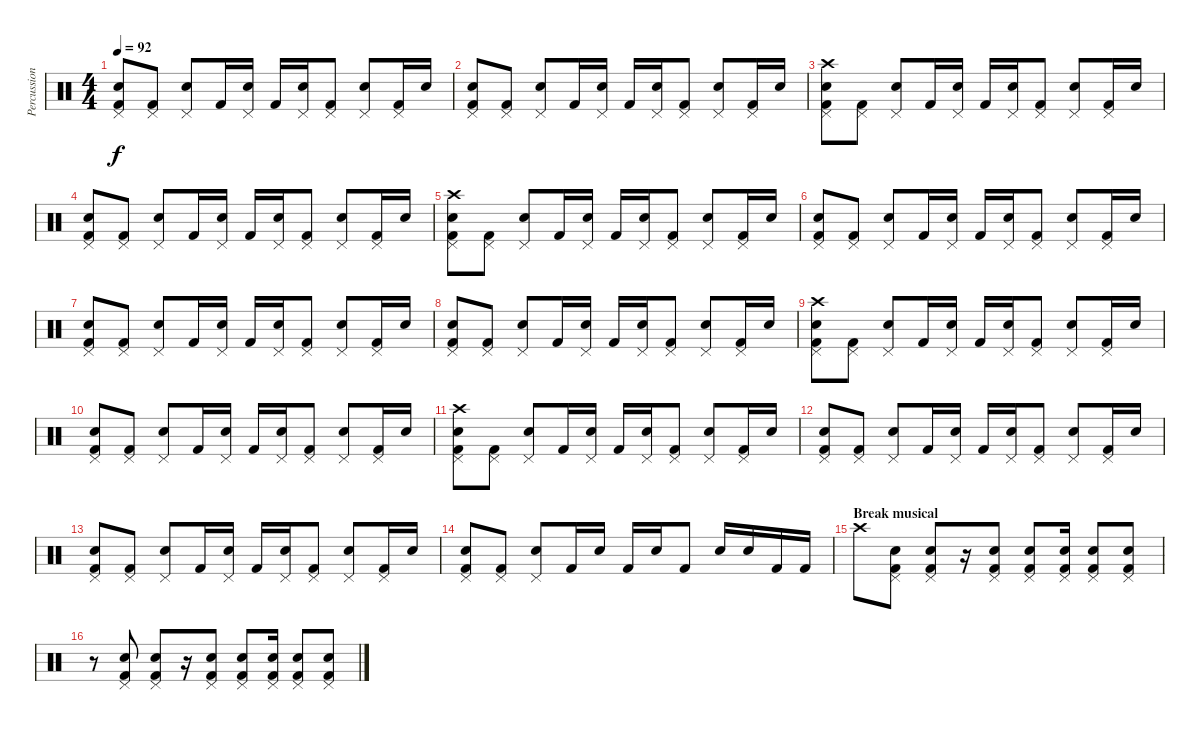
\track ("Percussions" "Percussion") {instrument percussion}
\staff {score}
\articulation defaults
\ts (4 4)
\tempo 92
\clef neutral
\ks c
("Pedal Hi-Hat (hit)" "Electric Snare (hit)" "Kick (hit) 2").8{dy f} ("Pedal Hi-Hat (hit)" "Kick (hit) 2").8 ("Pedal Hi-Hat (hit)" "Electric Snare (hit)").8 "Kick (hit) 2".16 ("Pedal Hi-Hat (hit)" "Electric Snare (hit)").16 "Kick (hit) 2".16 ("Pedal Hi-Hat (hit)" "Electric Snare (hit)").16 ("Pedal Hi-Hat (hit)" "Kick (hit) 2").8 ("Pedal Hi-Hat (hit)" "Electric Snare (hit)").8 ("Pedal Hi-Hat (hit)" "Kick (hit) 2").16 "Electric Snare (hit)".16 |
("Pedal Hi-Hat (hit)" "Electric Snare (hit)" "Kick (hit) 2").8 ("Pedal Hi-Hat (hit)" "Kick (hit) 2").8 ("Pedal Hi-Hat (hit)" "Electric Snare (hit)").8 "Kick (hit) 2".16 ("Pedal Hi-Hat (hit)" "Electric Snare (hit)").16 "Kick (hit) 2".16 ("Pedal Hi-Hat (hit)" "Electric Snare (hit)").16 ("Pedal Hi-Hat (hit)" "Kick (hit) 2").8 ("Pedal Hi-Hat (hit)" "Electric Snare (hit)").8 ("Pedal Hi-Hat (hit)" "Kick (hit) 2").16 "Electric Snare (hit)".16 |
("Pedal Hi-Hat (hit)" "Crash high (hit)" "Electric Snare (hit)" "Kick (hit) 2").8 ("Pedal Hi-Hat (hit)" "Kick (hit) 2").8 ("Pedal Hi-Hat (hit)" "Electric Snare (hit)").8 "Kick (hit) 2".16 ("Pedal Hi-Hat (hit)" "Electric Snare (hit)").16 "Kick (hit) 2".16 ("Pedal Hi-Hat (hit)" "Electric Snare (hit)").16 ("Pedal Hi-Hat (hit)" "Kick (hit) 2").8 ("Pedal Hi-Hat (hit)" "Electric Snare (hit)").8 ("Pedal Hi-Hat (hit)" "Kick (hit) 2").16 "Electric Snare (hit)".16 |
("Pedal Hi-Hat (hit)" "Electric Snare (hit)" "Kick (hit) 2").8 ("Pedal Hi-Hat (hit)" "Kick (hit) 2").8 ("Pedal Hi-Hat (hit)" "Electric Snare (hit)").8 "Kick (hit) 2".16 ("Pedal Hi-Hat (hit)" "Electric Snare (hit)").16 "Kick (hit) 2".16 ("Pedal Hi-Hat (hit)" "Electric Snare (hit)").16 ("Pedal Hi-Hat (hit)" "Kick (hit) 2").8 ("Pedal Hi-Hat (hit)" "Electric Snare (hit)").8 ("Pedal Hi-Hat (hit)" "Kick (hit) 2").16 "Electric Snare (hit)".16 |
("Pedal Hi-Hat (hit)" "Crash high (hit)" "Electric Snare (hit)" "Kick (hit) 2").8 ("Pedal Hi-Hat (hit)" "Kick (hit) 2").8 ("Pedal Hi-Hat (hit)" "Electric Snare (hit)").8 "Kick (hit) 2".16 ("Pedal Hi-Hat (hit)" "Electric Snare (hit)").16 "Kick (hit) 2".16 ("Pedal Hi-Hat (hit)" "Electric Snare (hit)").16 ("Pedal Hi-Hat (hit)" "Kick (hit) 2").8 ("Pedal Hi-Hat (hit)" "Electric Snare (hit)").8 ("Pedal Hi-Hat (hit)" "Kick (hit) 2").16 "Electric Snare (hit)".16 |
("Pedal Hi-Hat (hit)" "Electric Snare (hit)" "Kick (hit) 2").8 ("Pedal Hi-Hat (hit)" "Kick (hit) 2").8 ("Pedal Hi-Hat (hit)" "Electric Snare (hit)").8 "Kick (hit) 2".16 ("Pedal Hi-Hat (hit)" "Electric Snare (hit)").16 "Kick (hit) 2".16 ("Pedal Hi-Hat (hit)" "Electric Snare (hit)").16 ("Pedal Hi-Hat (hit)" "Kick (hit) 2").8 ("Pedal Hi-Hat (hit)" "Electric Snare (hit)").8 ("Pedal Hi-Hat (hit)" "Kick (hit) 2").16 "Electric Snare (hit)".16 |
("Pedal Hi-Hat (hit)" "Electric Snare (hit)" "Kick (hit) 2").8 ("Pedal Hi-Hat (hit)" "Kick (hit) 2").8 ("Pedal Hi-Hat (hit)" "Electric Snare (hit)").8 "Kick (hit) 2".16 ("Pedal Hi-Hat (hit)" "Electric Snare (hit)").16 "Kick (hit) 2".16 ("Pedal Hi-Hat (hit)" "Electric Snare (hit)").16 ("Pedal Hi-Hat (hit)" "Kick (hit) 2").8 ("Pedal Hi-Hat (hit)" "Electric Snare (hit)").8 ("Pedal Hi-Hat (hit)" "Kick (hit) 2").16 "Electric Snare (hit)".16 |
("Pedal Hi-Hat (hit)" "Electric Snare (hit)" "Kick (hit) 2").8 ("Pedal Hi-Hat (hit)" "Kick (hit) 2").8 ("Pedal Hi-Hat (hit)" "Electric Snare (hit)").8 "Kick (hit) 2".16 ("Pedal Hi-Hat (hit)" "Electric Snare (hit)").16 "Kick (hit) 2".16 ("Pedal Hi-Hat (hit)" "Electric Snare (hit)").16 ("Pedal Hi-Hat (hit)" "Kick (hit) 2").8 ("Pedal Hi-Hat (hit)" "Electric Snare (hit)").8 ("Pedal Hi-Hat (hit)" "Kick (hit) 2").16 "Electric Snare (hit)".16 |
("Pedal Hi-Hat (hit)" "Crash high (hit)" "Electric Snare (hit)" "Kick (hit) 2").8 ("Pedal Hi-Hat (hit)" "Kick (hit) 2").8 ("Pedal Hi-Hat (hit)" "Electric Snare (hit)").8 "Kick (hit) 2".16 ("Pedal Hi-Hat (hit)" "Electric Snare (hit)").16 "Kick (hit) 2".16 ("Pedal Hi-Hat (hit)" "Electric Snare (hit)").16 ("Pedal Hi-Hat (hit)" "Kick (hit) 2").8 ("Pedal Hi-Hat (hit)" "Electric Snare (hit)").8 ("Pedal Hi-Hat (hit)" "Kick (hit) 2").16 "Electric Snare (hit)".16 |
("Pedal Hi-Hat (hit)" "Electric Snare (hit)" "Kick (hit) 2").8 ("Pedal Hi-Hat (hit)" "Kick (hit) 2").8 ("Pedal Hi-Hat (hit)" "Electric Snare (hit)").8 "Kick (hit) 2".16 ("Pedal Hi-Hat (hit)" "Electric Snare (hit)").16 "Kick (hit) 2".16 ("Pedal Hi-Hat (hit)" "Electric Snare (hit)").16 ("Pedal Hi-Hat (hit)" "Kick (hit) 2").8 ("Pedal Hi-Hat (hit)" "Electric Snare (hit)").8 ("Pedal Hi-Hat (hit)" "Kick (hit) 2").16 "Electric Snare (hit)".16 |
("Pedal Hi-Hat (hit)" "Crash high (hit)" "Electric Snare (hit)" "Kick (hit) 2").8 ("Pedal Hi-Hat (hit)" "Kick (hit) 2").8 ("Pedal Hi-Hat (hit)" "Electric Snare (hit)").8 "Kick (hit) 2".16 ("Pedal Hi-Hat (hit)" "Electric Snare (hit)").16 "Kick (hit) 2".16 ("Pedal Hi-Hat (hit)" "Electric Snare (hit)").16 ("Pedal Hi-Hat (hit)" "Kick (hit) 2").8 ("Pedal Hi-Hat (hit)" "Electric Snare (hit)").8 ("Pedal Hi-Hat (hit)" "Kick (hit) 2").16 "Electric Snare (hit)".16 |
("Pedal Hi-Hat (hit)" "Electric Snare (hit)" "Kick (hit) 2").8 ("Pedal Hi-Hat (hit)" "Kick (hit) 2").8 ("Pedal Hi-Hat (hit)" "Electric Snare (hit)").8 "Kick (hit) 2".16 ("Pedal Hi-Hat (hit)" "Electric Snare (hit)").16 "Kick (hit) 2".16 ("Pedal Hi-Hat (hit)" "Electric Snare (hit)").16 ("Pedal Hi-Hat (hit)" "Kick (hit) 2").8 ("Pedal Hi-Hat (hit)" "Electric Snare (hit)").8 ("Pedal Hi-Hat (hit)" "Kick (hit) 2").16 "Electric Snare (hit)".16 |
("Pedal Hi-Hat (hit)" "Electric Snare (hit)" "Kick (hit) 2").8 ("Pedal Hi-Hat (hit)" "Kick (hit) 2").8 ("Pedal Hi-Hat (hit)" "Electric Snare (hit)").8 "Kick (hit) 2".16 ("Pedal Hi-Hat (hit)" "Electric Snare (hit)").16 "Kick (hit) 2".16 ("Pedal Hi-Hat (hit)" "Electric Snare (hit)").16 ("Pedal Hi-Hat (hit)" "Kick (hit) 2").8 ("Pedal Hi-Hat (hit)" "Electric Snare (hit)").8 ("Pedal Hi-Hat (hit)" "Kick (hit) 2").16 "Electric Snare (hit)".16 |
("Pedal Hi-Hat (hit)" "Electric Snare (hit)" "Kick (hit) 2").8 ("Pedal Hi-Hat (hit)" "Kick (hit) 2").8 ("Pedal Hi-Hat (hit)" "Electric Snare (hit)").8 "Kick (hit) 2".16 "Electric Snare (hit)".16 "Kick (hit) 2".16 "Electric Snare (hit)".16 "Kick (hit) 2".8 "Electric Snare (hit)".16 "Electric Snare (hit)".16 "Kick (hit) 2".16 "Kick (hit) 2".16 |
\section ("" "Break musical")
"Crash high (hit)".8 ("Electric Snare (hit)" "Pedal Hi-Hat (hit)" "Kick (hit) 2").8 ("Electric Snare (hit)" "Pedal Hi-Hat (hit)" "Kick (hit) 2").8 r.16 ("Electric Snare (hit)" "Pedal Hi-Hat (hit)" "Kick (hit) 2").8 ("Electric Snare (hit)" "Pedal Hi-Hat (hit)" "Kick (hit) 2").8 ("Electric Snare (hit)" "Pedal Hi-Hat (hit)" "Kick (hit) 2").16 ("Electric Snare (hit)" "Pedal Hi-Hat (hit)" "Kick (hit) 2").8 ("Electric Snare (hit)" "Pedal Hi-Hat (hit)" "Kick (hit) 2").8 |
r.8 ("Electric Snare (hit)" "Pedal Hi-Hat (hit)" "Kick (hit) 2").8 ("Electric Snare (hit)" "Pedal Hi-Hat (hit)" "Kick (hit) 2").8 r.16 ("Electric Snare (hit)" "Pedal Hi-Hat (hit)" "Kick (hit) 2").8 ("Electric Snare (hit)" "Pedal Hi-Hat (hit)" "Kick (hit) 2").8 ("Electric Snare (hit)" "Pedal Hi-Hat (hit)" "Kick (hit) 2").16 ("Electric Snare (hit)" "Pedal Hi-Hat (hit)" "Kick (hit) 2").8 ("Electric Snare (hit)" "Pedal Hi-Hat (hit)" "Kick (hit) 2").8
